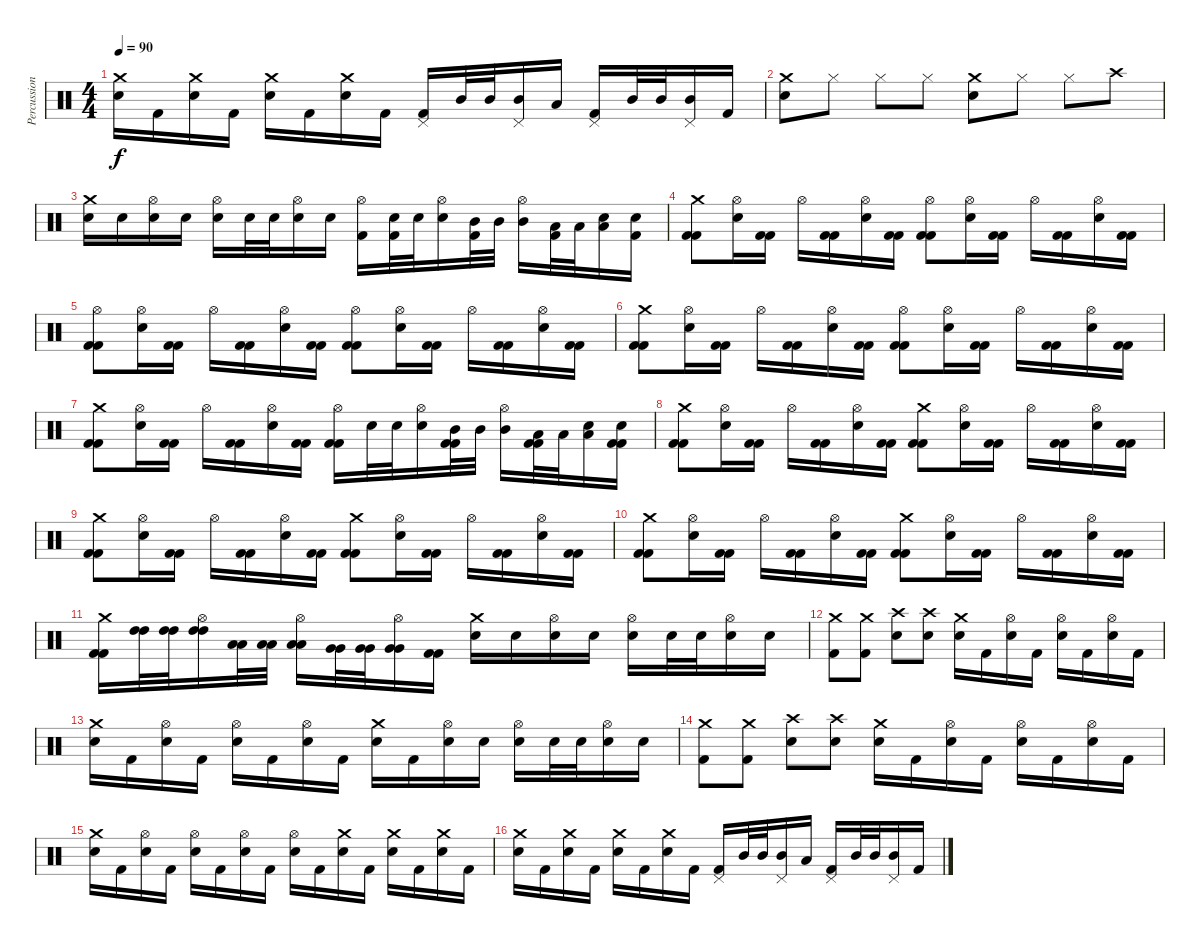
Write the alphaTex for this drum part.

\track ("Percussioni" "Percussion") {instrument percussion}
\staff {score}
\articulation defaults
\ts (4 4)
\tempo 90
\clef neutral
\ks c
("Crash medium (hit)" "Electric Snare (hit)").16{dy f} "Kick (hit) 2".16 ("Crash medium (hit)" "Electric Snare (hit)").16 "Kick (hit) 2".16 ("Crash medium (hit)" "Electric Snare (hit)").16 "Kick (hit) 2".16 ("Crash medium (hit)" "Electric Snare (hit)").16 "Kick (hit) 2".16 ("Pedal Hi-Hat (hit)" "Kick (hit) 2").16 "Mid Tom (hit)".32 "Mid Tom (hit)".32 ("Pedal Hi-Hat (hit)" "Mid Tom (hit)").16 "Low Tom (hit)".16 ("Pedal Hi-Hat (hit)" "Kick (hit) 2").16 "Mid Tom (hit)".32 "Mid Tom (hit)".32 ("Pedal Hi-Hat (hit)" "Mid Tom (hit)").16 "Kick (hit) 2".16 |
("Crash medium (hit)" "Electric Snare (hit)").8 "Hi-Hat (closed)".8 "Hi-Hat (closed)".8 "Hi-Hat (closed)".8 ("Crash medium (hit)" "Electric Snare (hit)").8 "Hi-Hat (closed)".8 "Hi-Hat (closed)".8 "Crash high (hit)".8 |
("Crash medium (hit)" "Electric Snare (hit)").16 "Electric Snare (hit)".16 ("Hi-Hat (open)" "Electric Snare (hit)").16 "Electric Snare (hit)".16 ("Hi-Hat (open)" "Electric Snare (hit)").16 "Electric Snare (hit)".32 "Electric Snare (hit)".32 ("Hi-Hat (open)" "Electric Snare (hit)").16 "Electric Snare (hit)".16 ("Hi-Hat (open)" "Kick (hit) 2").16 ("Electric Snare (hit)" "Kick (hit) 2").32 "Electric Snare (hit)".32 ("Hi-Hat (open)" "Electric Snare (hit)").16 ("Mid Tom (hit)" "Kick (hit) 2").32 "Mid Tom (hit)".32 ("Hi-Hat (open)" "Mid Tom (hit)").16 ("Low Tom (hit)" "Kick (hit) 2").32 "Low Tom (hit)".32 ("Low Tom (hit)" "Electric Snare (hit)").16 ("Electric Snare (hit)" "Kick (hit) 2").16 |
("Crash medium (hit)" "Kick (hit) 2" "Kick (hit) 2").8 ("Hi-Hat (open)" "Electric Snare (hit)").16 ("Kick (hit) 2" "Kick (hit) 2").16 "Hi-Hat (open)".16 ("Kick (hit) 2" "Kick (hit) 2").16 ("Hi-Hat (open)" "Electric Snare (hit)").16 ("Kick (hit) 2" "Kick (hit) 2").16 ("Hi-Hat (open)" "Kick (hit) 2" "Kick (hit) 2").8 ("Hi-Hat (open)" "Electric Snare (hit)").16 ("Kick (hit) 2" "Kick (hit) 2").16 "Hi-Hat (open)".16 ("Kick (hit) 2" "Kick (hit) 2").16 ("Hi-Hat (open)" "Electric Snare (hit)").16 ("Kick (hit) 2" "Kick (hit) 2").16 |
("Hi-Hat (open)" "Kick (hit) 2" "Kick (hit) 2").8 ("Hi-Hat (open)" "Electric Snare (hit)").16 ("Kick (hit) 2" "Kick (hit) 2").16 "Hi-Hat (open)".16 ("Kick (hit) 2" "Kick (hit) 2").16 ("Hi-Hat (open)" "Electric Snare (hit)").16 ("Kick (hit) 2" "Kick (hit) 2").16 ("Hi-Hat (open)" "Kick (hit) 2" "Kick (hit) 2").8 ("Hi-Hat (open)" "Electric Snare (hit)").16 ("Kick (hit) 2" "Kick (hit) 2").16 "Hi-Hat (open)".16 ("Kick (hit) 2" "Kick (hit) 2").16 ("Hi-Hat (open)" "Electric Snare (hit)").16 ("Kick (hit) 2" "Kick (hit) 2").16 |
("Crash medium (hit)" "Kick (hit) 2" "Kick (hit) 2").8 ("Hi-Hat (open)" "Electric Snare (hit)").16 ("Kick (hit) 2" "Kick (hit) 2").16 "Hi-Hat (open)".16 ("Kick (hit) 2" "Kick (hit) 2").16 ("Hi-Hat (open)" "Electric Snare (hit)").16 ("Kick (hit) 2" "Kick (hit) 2").16 ("Hi-Hat (open)" "Kick (hit) 2" "Kick (hit) 2").8 ("Hi-Hat (open)" "Electric Snare (hit)").16 ("Kick (hit) 2" "Kick (hit) 2").16 "Hi-Hat (open)".16 ("Kick (hit) 2" "Kick (hit) 2").16 ("Hi-Hat (open)" "Electric Snare (hit)").16 ("Kick (hit) 2" "Kick (hit) 2").16 |
("Crash medium (hit)" "Kick (hit) 2" "Kick (hit) 2").8 ("Hi-Hat (open)" "Electric Snare (hit)").16 ("Kick (hit) 2" "Kick (hit) 2").16 "Hi-Hat (open)".16 ("Kick (hit) 2" "Kick (hit) 2").16 ("Hi-Hat (open)" "Electric Snare (hit)").16 ("Kick (hit) 2" "Kick (hit) 2").16 ("Hi-Hat (open)" "Kick (hit) 2" "Kick (hit) 2").16 "Electric Snare (hit)".32 "Electric Snare (hit)".32 ("Hi-Hat (open)" "Electric Snare (hit)").16 ("Mid Tom (hit)" "Kick (hit) 2" "Kick (hit) 2").32 "Mid Tom (hit)".32 ("Hi-Hat (open)" "Mid Tom (hit)").16 ("Low Tom (hit)" "Kick (hit) 2" "Kick (hit) 2").32 "Low Tom (hit)".32 ("Low Tom (hit)" "Electric Snare (hit)").16 ("Electric Snare (hit)" "Kick (hit) 2" "Kick (hit) 2").16 |
("Crash medium (hit)" "Kick (hit) 2" "Kick (hit) 2").8 ("Hi-Hat (open)" "Electric Snare (hit)").16 ("Kick (hit) 2" "Kick (hit) 2").16 "Hi-Hat (open)".16 ("Kick (hit) 2" "Kick (hit) 2").16 ("Hi-Hat (open)" "Electric Snare (hit)").16 ("Kick (hit) 2" "Kick (hit) 2").16 ("Crash medium (hit)" "Kick (hit) 2" "Kick (hit) 2").8 ("Hi-Hat (open)" "Electric Snare (hit)").16 ("Kick (hit) 2" "Kick (hit) 2").16 "Hi-Hat (open)".16 ("Kick (hit) 2" "Kick (hit) 2").16 ("Hi-Hat (open)" "Electric Snare (hit)").16 ("Kick (hit) 2" "Kick (hit) 2").16 |
("Crash medium (hit)" "Kick (hit) 2" "Kick (hit) 2").8 ("Hi-Hat (open)" "Electric Snare (hit)").16 ("Kick (hit) 2" "Kick (hit) 2").16 "Hi-Hat (open)".16 ("Kick (hit) 2" "Kick (hit) 2").16 ("Hi-Hat (open)" "Electric Snare (hit)").16 ("Kick (hit) 2" "Kick (hit) 2").16 ("Crash medium (hit)" "Kick (hit) 2" "Kick (hit) 2").8 ("Hi-Hat (open)" "Electric Snare (hit)").16 ("Kick (hit) 2" "Kick (hit) 2").16 "Hi-Hat (open)".16 ("Kick (hit) 2" "Kick (hit) 2").16 ("Hi-Hat (open)" "Electric Snare (hit)").16 ("Kick (hit) 2" "Kick (hit) 2").16 |
("Crash medium (hit)" "Kick (hit) 2" "Kick (hit) 2").8 ("Hi-Hat (open)" "Electric Snare (hit)").16 ("Kick (hit) 2" "Kick (hit) 2").16 "Hi-Hat (open)".16 ("Kick (hit) 2" "Kick (hit) 2").16 ("Hi-Hat (open)" "Electric Snare (hit)").16 ("Kick (hit) 2" "Kick (hit) 2").16 ("Crash medium (hit)" "Kick (hit) 2" "Kick (hit) 2").8 ("Hi-Hat (open)" "Electric Snare (hit)").16 ("Kick (hit) 2" "Kick (hit) 2").16 "Hi-Hat (open)".16 ("Kick (hit) 2" "Kick (hit) 2").16 ("Hi-Hat (open)" "Electric Snare (hit)").16 ("Kick (hit) 2" "Kick (hit) 2").16 |
("Crash medium (hit)" "Kick (hit) 2" "Kick (hit) 2").16 ("High Tom (hit)" "High Tom (hit)").32 ("High Tom (hit)" "High Tom (hit)").32 ("Hi-Hat (open)" "High Tom (hit)" "High Tom (hit)").16 ("Low Tom (hit)" "Low Tom (hit)").32 ("Low Tom (hit)" "Low Tom (hit)").32 ("Hi-Hat (open)" "Low Tom (hit)" "Low Tom (hit)").16 ("Very Low Tom (hit)" "Very Low Tom (hit)").32 ("Very Low Tom (hit)" "Very Low Tom (hit)").32 ("Hi-Hat (open)" "Very Low Tom (hit)" "Very Low Tom (hit)").16 ("Kick (hit) 2" "Kick (hit) 2").16 ("Crash medium (hit)" "Electric Snare (hit)").16 "Electric Snare (hit)".16 ("Hi-Hat (open)" "Electric Snare (hit)").16 "Electric Snare (hit)".16 ("Hi-Hat (open)" "Electric Snare (hit)").16 "Electric Snare (hit)".32 "Electric Snare (hit)".32 ("Hi-Hat (open)" "Electric Snare (hit)").16 "Electric Snare (hit)".16 |
("Crash medium (hit)" "Kick (hit) 2").8 ("Crash medium (hit)" "Kick (hit) 2").8 ("Crash high (hit)" "Electric Snare (hit)").8 ("Crash high (hit)" "Electric Snare (hit)").8 ("Crash medium (hit)" "Electric Snare (hit)").16 "Kick (hit) 2".16 ("Hi-Hat (open)" "Electric Snare (hit)").16 "Kick (hit) 2".16 ("Hi-Hat (open)" "Electric Snare (hit)").16 "Kick (hit) 2".16 ("Hi-Hat (open)" "Electric Snare (hit)").16 "Kick (hit) 2".16 |
("Crash medium (hit)" "Electric Snare (hit)").16 "Kick (hit) 2".16 ("Hi-Hat (open)" "Electric Snare (hit)").16 "Kick (hit) 2".16 ("Hi-Hat (open)" "Electric Snare (hit)").16 "Kick (hit) 2".16 ("Hi-Hat (open)" "Electric Snare (hit)").16 "Kick (hit) 2".16 ("Crash medium (hit)" "Electric Snare (hit)").16 "Kick (hit) 2".16 ("Hi-Hat (open)" "Electric Snare (hit)").16 "Electric Snare (hit)".16 ("Hi-Hat (open)" "Electric Snare (hit)").16 "Electric Snare (hit)".32 "Electric Snare (hit)".32 ("Hi-Hat (open)" "Electric Snare (hit)").16 "Electric Snare (hit)".16 |
("Crash medium (hit)" "Kick (hit) 2").8 ("Crash medium (hit)" "Kick (hit) 2").8 ("Crash high (hit)" "Electric Snare (hit)").8 ("Crash high (hit)" "Electric Snare (hit)").8 ("Crash medium (hit)" "Electric Snare (hit)").16 "Kick (hit) 2".16 ("Hi-Hat (open)" "Electric Snare (hit)").16 "Kick (hit) 2".16 ("Hi-Hat (open)" "Electric Snare (hit)").16 "Kick (hit) 2".16 ("Hi-Hat (open)" "Electric Snare (hit)").16 "Kick (hit) 2".16 |
("Crash medium (hit)" "Electric Snare (hit)").16 "Kick (hit) 2".16 ("Hi-Hat (open)" "Electric Snare (hit)").16 "Kick (hit) 2".16 ("Hi-Hat (open)" "Electric Snare (hit)").16 "Kick (hit) 2".16 ("Hi-Hat (open)" "Electric Snare (hit)").16 "Kick (hit) 2".16 ("Hi-Hat (open)" "Electric Snare (hit)").16 "Kick (hit) 2".16 ("Crash medium (hit)" "Electric Snare (hit)").16 "Kick (hit) 2".16 ("Crash medium (hit)" "Electric Snare (hit)").16 "Kick (hit) 2".16 ("Crash medium (hit)" "Electric Snare (hit)").16 "Kick (hit) 2".16 |
("Crash medium (hit)" "Electric Snare (hit)").16 "Kick (hit) 2".16 ("Crash medium (hit)" "Electric Snare (hit)").16 "Kick (hit) 2".16 ("Crash medium (hit)" "Electric Snare (hit)").16 "Kick (hit) 2".16 ("Crash medium (hit)" "Electric Snare (hit)").16 "Kick (hit) 2".16 ("Pedal Hi-Hat (hit)" "Kick (hit) 2").16 "Mid Tom (hit)".32 "Mid Tom (hit)".32 ("Pedal Hi-Hat (hit)" "Mid Tom (hit)").16 "Low Tom (hit)".16 ("Pedal Hi-Hat (hit)" "Kick (hit) 2").16 "Mid Tom (hit)".32 "Mid Tom (hit)".32 ("Pedal Hi-Hat (hit)" "Mid Tom (hit)").16 "Kick (hit) 2".16
